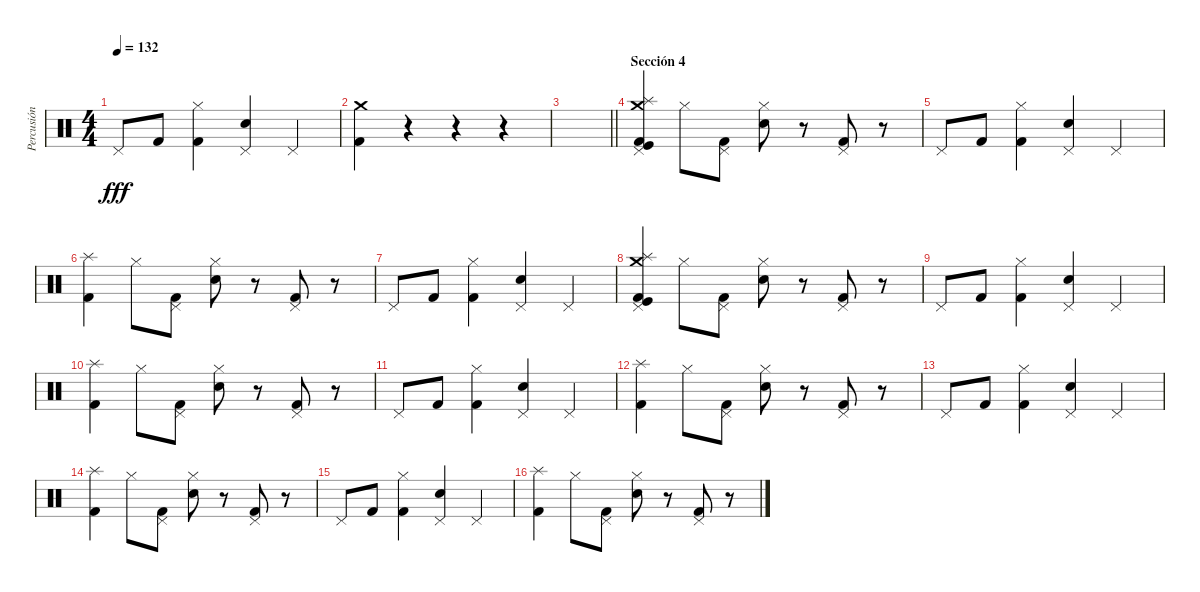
\track ("Percusión" "Percusión") {instrument percussion}
\staff {score}
\articulation defaults
\ts (4 4)
\tempo 132
\clef neutral
\ks c "Pedal Hi-Hat (hit)".8{dy fff} "Kick (hit) 2".8
("Hi-Hat (closed)" "Kick (hit) 2").4 ("Pedal Hi-Hat (hit)" "Snare (hit) 2").4 "Pedal Hi-Hat (hit)".4 |
("Crash medium (hit)" "Kick (hit) 2").4 r.4 r.4 r.4 |
\barLineRight lightlight
|
\section ("" "Sección 4")
("Splash (hit)" "Crash medium (hit)" "Pedal Hi-Hat (hit)" "Kick (hit) 2" "Kick (hit)").4 "Hi-Hat (closed)".8 ("Pedal Hi-Hat (hit)" "Kick (hit) 2").8 ("Hi-Hat (closed)" "Snare (hit) 2").8 r.8 ("Pedal Hi-Hat (hit)" "Kick (hit) 2").8 r.8 |
"Pedal Hi-Hat (hit)".8 "Kick (hit) 2".8 ("Hi-Hat (closed)" "Kick (hit) 2").4 ("Pedal Hi-Hat (hit)" "Snare (hit) 2").4 "Pedal Hi-Hat (hit)".4 |
("Splash (hit)" "Kick (hit) 2").4 "Hi-Hat (closed)".8 ("Pedal Hi-Hat (hit)" "Kick (hit) 2").8 ("Hi-Hat (closed)" "Snare (hit) 2").8 r.8 ("Pedal Hi-Hat (hit)" "Kick (hit) 2").8 r.8 |
"Pedal Hi-Hat (hit)".8 "Kick (hit) 2".8 ("Hi-Hat (closed)" "Kick (hit) 2").4 ("Pedal Hi-Hat (hit)" "Snare (hit) 2").4 "Pedal Hi-Hat (hit)".4 |
("Splash (hit)" "Pedal Hi-Hat (hit)" "Crash medium (hit)" "Kick (hit) 2" "Kick (hit)").4 "Hi-Hat (closed)".8 ("Pedal Hi-Hat (hit)" "Kick (hit) 2").8 ("Hi-Hat (closed)" "Snare (hit) 2").8 r.8 ("Pedal Hi-Hat (hit)" "Kick (hit) 2").8 r.8 |
"Pedal Hi-Hat (hit)".8 "Kick (hit) 2".8 ("Hi-Hat (closed)" "Kick (hit) 2").4 ("Pedal Hi-Hat (hit)" "Snare (hit) 2").4 "Pedal Hi-Hat (hit)".4 |
("Splash (hit)" "Kick (hit) 2").4 "Hi-Hat (closed)".8 ("Pedal Hi-Hat (hit)" "Kick (hit) 2").8 ("Hi-Hat (closed)" "Snare (hit) 2").8 r.8 ("Pedal Hi-Hat (hit)" "Kick (hit) 2").8 r.8 |
"Pedal Hi-Hat (hit)".8 "Kick (hit) 2".8 ("Hi-Hat (closed)" "Kick (hit) 2").4 ("Pedal Hi-Hat (hit)" "Snare (hit) 2").4 "Pedal Hi-Hat (hit)".4 |
("Splash (hit)" "Kick (hit) 2").4 "Hi-Hat (closed)".8 ("Pedal Hi-Hat (hit)" "Kick (hit) 2").8 ("Hi-Hat (closed)" "Snare (hit) 2").8 r.8 ("Pedal Hi-Hat (hit)" "Kick (hit) 2").8 r.8 |
"Pedal Hi-Hat (hit)".8 "Kick (hit) 2".8 ("Hi-Hat (closed)" "Kick (hit) 2").4 ("Pedal Hi-Hat (hit)" "Snare (hit) 2").4 "Pedal Hi-Hat (hit)".4 |
("Splash (hit)" "Kick (hit) 2").4 "Hi-Hat (closed)".8 ("Pedal Hi-Hat (hit)" "Kick (hit) 2").8 ("Hi-Hat (closed)" "Snare (hit) 2").8 r.8 ("Pedal Hi-Hat (hit)" "Kick (hit) 2").8 r.8 |
"Pedal Hi-Hat (hit)".8 "Kick (hit) 2".8 ("Hi-Hat (closed)" "Kick (hit) 2").4 ("Pedal Hi-Hat (hit)" "Snare (hit) 2").4 "Pedal Hi-Hat (hit)".4 |
("Splash (hit)" "Kick (hit) 2").4 "Hi-Hat (closed)".8 ("Pedal Hi-Hat (hit)" "Kick (hit) 2").8 ("Hi-Hat (closed)" "Snare (hit) 2").8 r.8 ("Pedal Hi-Hat (hit)" "Kick (hit) 2").8 r.8
